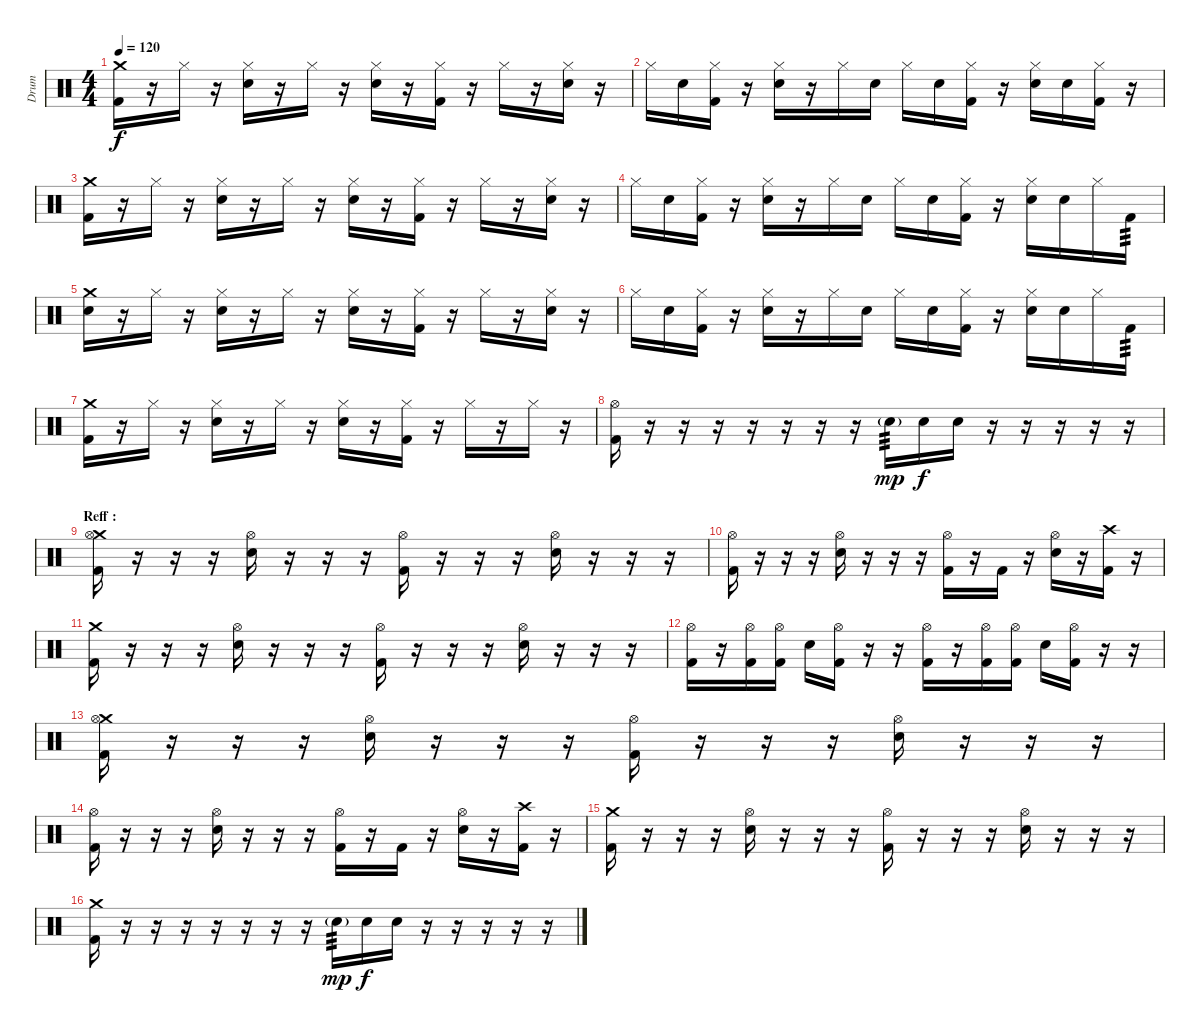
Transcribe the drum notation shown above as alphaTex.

\track ("Drum" "Drum") {instrument percussion}
\staff {score}
\articulation defaults
\ts (4 4)
\tempo 120
\clef neutral
\ks c
("Crash medium (hit)" "Kick (hit) 2").16{dy f} r.16 "Hi-Hat (closed)".16 r.16 ("Hi-Hat (closed)" "Snare (hit) 2").16 r.16 "Hi-Hat (closed)".16 r.16 ("Hi-Hat (closed)" "Snare (hit) 2").16 r.16 ("Hi-Hat (closed)" "Kick (hit) 2").16 r.16 "Hi-Hat (closed)".16 r.16 ("Hi-Hat (closed)" "Snare (hit) 2").16 r.16 |
"Hi-Hat (closed)".16 "Snare (hit) 2".16 ("Hi-Hat (closed)" "Kick (hit) 2").16 r.16 ("Hi-Hat (closed)" "Snare (hit) 2").16 r.16 "Hi-Hat (closed)".16 "Snare (hit) 2".16 "Hi-Hat (closed)".16 "Snare (hit) 2".16 ("Hi-Hat (closed)" "Kick (hit) 2").16 r.16 ("Hi-Hat (closed)" "Snare (hit) 2").16 "Snare (hit) 2".16 ("Hi-Hat (closed)" "Kick (hit) 2").16 r.16 |
("Crash medium (hit)" "Kick (hit) 2").16 r.16 "Hi-Hat (closed)".16 r.16 ("Hi-Hat (closed)" "Snare (hit) 2").16 r.16 "Hi-Hat (closed)".16 r.16 ("Hi-Hat (closed)" "Snare (hit) 2").16 r.16 ("Hi-Hat (closed)" "Kick (hit) 2").16 r.16 "Hi-Hat (closed)".16 r.16 ("Hi-Hat (closed)" "Snare (hit) 2").16 r.16 |
"Hi-Hat (closed)".16 "Snare (hit) 2".16 ("Hi-Hat (closed)" "Kick (hit) 2").16 r.16 ("Hi-Hat (closed)" "Snare (hit) 2").16 r.16 "Hi-Hat (closed)".16 "Snare (hit) 2".16 "Hi-Hat (closed)".16 "Snare (hit) 2".16 ("Hi-Hat (closed)" "Kick (hit) 2").16 r.16 ("Hi-Hat (closed)" "Snare (hit) 2").16 "Snare (hit) 2".16 "Hi-Hat (closed)".16 "Kick (hit) 2".16{tp 3} |
("Crash medium (hit)" "Snare (hit) 2").16 r.16 "Hi-Hat (closed)".16 r.16 ("Hi-Hat (closed)" "Snare (hit) 2").16 r.16 "Hi-Hat (closed)".16 r.16 ("Hi-Hat (closed)" "Snare (hit) 2").16 r.16 ("Hi-Hat (closed)" "Kick (hit) 2").16 r.16 "Hi-Hat (closed)".16 r.16 ("Hi-Hat (closed)" "Snare (hit) 2").16 r.16 |
"Hi-Hat (closed)".16 "Snare (hit) 2".16 ("Hi-Hat (closed)" "Kick (hit) 2").16 r.16 ("Hi-Hat (closed)" "Snare (hit) 2").16 r.16 "Hi-Hat (closed)".16 "Snare (hit) 2".16 "Hi-Hat (closed)".16 "Snare (hit) 2".16 ("Hi-Hat (closed)" "Kick (hit) 2").16 r.16 ("Hi-Hat (closed)" "Snare (hit) 2").16 "Snare (hit) 2".16 "Hi-Hat (closed)".16 "Kick (hit) 2".16{tp 3} |
("Crash medium (hit)" "Kick (hit) 2").16 r.16 "Hi-Hat (closed)".16 r.16 ("Hi-Hat (closed)" "Snare (hit) 2").16 r.16 "Hi-Hat (closed)".16 r.16 ("Hi-Hat (closed)" "Snare (hit) 2").16 r.16 ("Hi-Hat (closed)" "Kick (hit) 2").16 r.16 "Hi-Hat (closed)".16 r.16 "Hi-Hat (closed)".16 r.16 |
("Hi-Hat (open)" "Kick (hit) 2").16 r.16 r.16 r.16 r.16 r.16 r.16 r.16 "Snare (hit) 2"{g}.16{tp 3 dy mp} "Snare (hit) 2".16{dy f} "Snare (hit) 2".16 r.16 r.16 r.16 r.16 r.16 |
\section ("" "Reff :")
("Crash medium (hit)" "Hi-Hat (open)" "Kick (hit) 2").16 r.16 r.16 r.16 ("Hi-Hat (open)" "Snare (hit) 2").16 r.16 r.16 r.16 ("Hi-Hat (open)" "Kick (hit) 2").16 r.16 r.16 r.16 ("Hi-Hat (open)" "Snare (hit) 2").16 r.16 r.16 r.16 |
("Hi-Hat (open)" "Kick (hit) 2").16 r.16 r.16 r.16 ("Hi-Hat (open)" "Snare (hit) 2").16 r.16 r.16 r.16 ("Hi-Hat (open)" "Kick (hit) 2").16 r.16 "Kick (hit) 2".16 r.16 ("Hi-Hat (open)" "Snare (hit) 2").16 r.16 ("Crash high (hit)" "Kick (hit) 2").16 r.16 |
("Crash medium (hit)" "Kick (hit) 2").16 r.16 r.16 r.16 ("Hi-Hat (open)" "Snare (hit) 2").16 r.16 r.16 r.16 ("Hi-Hat (open)" "Kick (hit) 2").16 r.16 r.16 r.16 ("Hi-Hat (open)" "Snare (hit) 2").16 r.16 r.16 r.16 |
("Hi-Hat (open)" "Kick (hit) 2").16 r.16 ("Hi-Hat (open)" "Kick (hit) 2").16 ("Hi-Hat (open)" "Kick (hit) 2").16 "Snare (hit) 2".16 ("Hi-Hat (open)" "Kick (hit) 2").16 r.16 r.16 ("Hi-Hat (open)" "Kick (hit) 2").16 r.16 ("Hi-Hat (open)" "Kick (hit) 2").16 ("Hi-Hat (open)" "Kick (hit) 2").16 "Snare (hit) 2".16 ("Hi-Hat (open)" "Kick (hit) 2").16 r.16 r.16 |
("Crash medium (hit)" "Hi-Hat (open)" "Kick (hit) 2").16 r.16 r.16 r.16 ("Hi-Hat (open)" "Snare (hit) 2").16 r.16 r.16 r.16 ("Hi-Hat (open)" "Kick (hit) 2").16 r.16 r.16 r.16 ("Hi-Hat (open)" "Snare (hit) 2").16 r.16 r.16 r.16 |
("Hi-Hat (open)" "Kick (hit) 2").16 r.16 r.16 r.16 ("Hi-Hat (open)" "Snare (hit) 2").16 r.16 r.16 r.16 ("Hi-Hat (open)" "Kick (hit) 2").16 r.16 "Kick (hit) 2".16 r.16 ("Hi-Hat (open)" "Snare (hit) 2").16 r.16 ("Crash high (hit)" "Kick (hit) 2").16 r.16 |
("Crash medium (hit)" "Kick (hit) 2").16 r.16 r.16 r.16 ("Hi-Hat (open)" "Snare (hit) 2").16 r.16 r.16 r.16 ("Hi-Hat (open)" "Kick (hit) 2").16 r.16 r.16 r.16 ("Hi-Hat (open)" "Snare (hit) 2").16 r.16 r.16 r.16 |
("Crash medium (hit)" "Kick (hit) 2").16 r.16 r.16 r.16 r.16 r.16 r.16 r.16 "Snare (hit) 2"{g}.16{tp 3 dy mp} "Snare (hit) 2".16{dy f} "Snare (hit) 2".16 r.16 r.16 r.16 r.16 r.16
